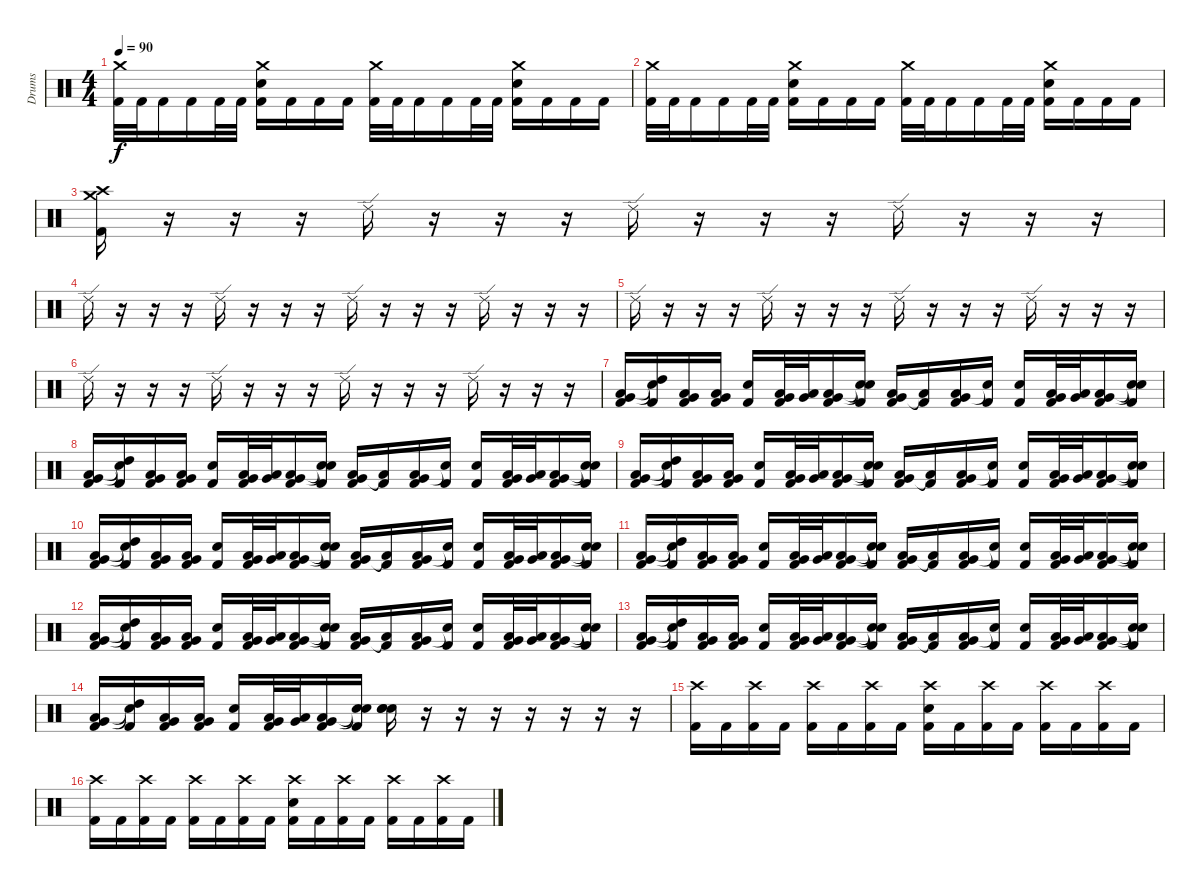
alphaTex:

\track ("Drums" "Drums") {instrument percussion}
\staff {score}
\articulation defaults
\ts (4 4)
\tempo 90
\clef neutral
\ks c
("Crash medium (hit)" "Kick (hit) 2").32{dy f} "Kick (hit) 2".32 "Kick (hit) 2".16 "Kick (hit) 2".16 "Kick (hit) 2".32 "Kick (hit) 2".32 ("Crash medium (hit)" "Electric Snare (hit)" "Kick (hit) 2").16 "Kick (hit) 2".16 "Kick (hit) 2".16 "Kick (hit) 2".16 ("Crash medium (hit)" "Kick (hit) 2").32 "Kick (hit) 2".32 "Kick (hit) 2".16 "Kick (hit) 2".16 "Kick (hit) 2".32 "Kick (hit) 2".32 ("Crash medium (hit)" "Electric Snare (hit)" "Kick (hit) 2").16 "Kick (hit) 2".16 "Kick (hit) 2".16 "Kick (hit) 2".16 |
("Crash medium (hit)" "Kick (hit) 2").32 "Kick (hit) 2".32 "Kick (hit) 2".16 "Kick (hit) 2".16 "Kick (hit) 2".32 "Kick (hit) 2".32 ("Crash medium (hit)" "Electric Snare (hit)" "Kick (hit) 2").16 "Kick (hit) 2".16 "Kick (hit) 2".16 "Kick (hit) 2".16 ("Crash medium (hit)" "Kick (hit) 2").32 "Kick (hit) 2".32 "Kick (hit) 2".16 "Kick (hit) 2".16 "Kick (hit) 2".32 "Kick (hit) 2".32 ("Crash medium (hit)" "Electric Snare (hit)" "Kick (hit) 2").16 "Kick (hit) 2".16 "Kick (hit) 2".16 "Kick (hit) 2".16 |
("Crash medium (hit)" "Crash high (hit)" "Kick (hit) 2").16 r.16 r.16 r.16 "Ride (edge) 2".16 r.16 r.16 r.16 "Ride (edge) 2".16 r.16 r.16 r.16 "Ride (edge) 2".16 r.16 r.16 r.16 |
"Ride (edge) 2".16 r.16 r.16 r.16 "Ride (edge) 2".16 r.16 r.16 r.16 "Ride (edge) 2".16 r.16 r.16 r.16 "Ride (edge) 2".16 r.16 r.16 r.16 |
"Ride (edge) 2".16 r.16 r.16 r.16 "Ride (edge) 2".16 r.16 r.16 r.16 "Ride (edge) 2".16 r.16 r.16 r.16 "Ride (edge) 2".16 r.16 r.16 r.16 |
"Ride (edge) 2".16 r.16 r.16 r.16 "Ride (edge) 2".16 r.16 r.16 r.16 "Ride (edge) 2".16 r.16 r.16 r.16 "Ride (edge) 2".16 r.16 r.16 r.16 |
("Very Low Tom (hit)" "Low Tom (hit)" "Kick (hit) 2").16 ("Snare (hit)"{t} "High Tom (hit)"{t} "Kick (hit) 2").16 ("Very Low Tom (hit)" "Low Tom (hit)" "Kick (hit) 2").16 ("Very Low Tom (hit)" "Low Tom (hit)" "Kick (hit) 2").16 ("Kick (hit) 2" "Electric Snare (hit)").16 ("Very Low Tom (hit)" "Low Tom (hit)" "Kick (hit) 2").32 ("Very Low Tom (hit)" "Low Tom (hit)").32 ("Very Low Tom (hit)" "Low Tom (hit)" "Kick (hit) 2").16 ("Snare (hit)"{t} "Snare (hit)"{t} "Kick (hit) 2").16 ("Very Low Tom (hit)" "Low Tom (hit)" "Kick (hit) 2").16 ("Low Tom (hit)"{t} "Kick (hit) 2").16 ("Very Low Tom (hit)" "Low Tom (hit)" "Kick (hit) 2").16 ("Electric Snare (hit)"{t} "Kick (hit) 2").16 ("Electric Snare (hit)" "Kick (hit) 2").16 ("Low Tom (hit)" "Very Low Tom (hit)" "Kick (hit) 2").32 ("Low Tom (hit)" "Very Low Tom (hit)").32 ("Low Tom (hit)" "Very Low Tom (hit)" "Kick (hit) 2").16 ("Snare (hit)"{t} "Snare (hit)"{t} "Kick (hit) 2").16 |
("Very Low Tom (hit)" "Low Tom (hit)" "Kick (hit) 2").16 ("Snare (hit)"{t} "High Tom (hit)"{t} "Kick (hit) 2").16 ("Very Low Tom (hit)" "Low Tom (hit)" "Kick (hit) 2").16 ("Very Low Tom (hit)" "Low Tom (hit)" "Kick (hit) 2").16 ("Kick (hit) 2" "Electric Snare (hit)").16 ("Very Low Tom (hit)" "Low Tom (hit)" "Kick (hit) 2").32 ("Very Low Tom (hit)" "Low Tom (hit)").32 ("Very Low Tom (hit)" "Low Tom (hit)" "Kick (hit) 2").16 ("Snare (hit)"{t} "Snare (hit)"{t} "Kick (hit) 2").16 ("Very Low Tom (hit)" "Low Tom (hit)" "Kick (hit) 2").16 ("Low Tom (hit)"{t} "Kick (hit) 2").16 ("Very Low Tom (hit)" "Low Tom (hit)" "Kick (hit) 2").16 ("Electric Snare (hit)"{t} "Kick (hit) 2").16 ("Electric Snare (hit)" "Kick (hit) 2").16 ("Low Tom (hit)" "Very Low Tom (hit)" "Kick (hit) 2").32 ("Low Tom (hit)" "Very Low Tom (hit)").32 ("Low Tom (hit)" "Very Low Tom (hit)" "Kick (hit) 2").16 ("Snare (hit)"{t} "Snare (hit)"{t} "Kick (hit) 2").16 |
("Very Low Tom (hit)" "Low Tom (hit)" "Kick (hit) 2").16 ("Snare (hit)"{t} "High Tom (hit)"{t} "Kick (hit) 2").16 ("Very Low Tom (hit)" "Low Tom (hit)" "Kick (hit) 2").16 ("Very Low Tom (hit)" "Low Tom (hit)" "Kick (hit) 2").16 ("Kick (hit) 2" "Electric Snare (hit)").16 ("Very Low Tom (hit)" "Low Tom (hit)" "Kick (hit) 2").32 ("Very Low Tom (hit)" "Low Tom (hit)").32 ("Very Low Tom (hit)" "Low Tom (hit)" "Kick (hit) 2").16 ("Snare (hit)"{t} "Snare (hit)"{t} "Kick (hit) 2").16 ("Very Low Tom (hit)" "Low Tom (hit)" "Kick (hit) 2").16 ("Low Tom (hit)"{t} "Kick (hit) 2").16 ("Very Low Tom (hit)" "Low Tom (hit)" "Kick (hit) 2").16 ("Electric Snare (hit)"{t} "Kick (hit) 2").16 ("Electric Snare (hit)" "Kick (hit) 2").16 ("Low Tom (hit)" "Very Low Tom (hit)" "Kick (hit) 2").32 ("Low Tom (hit)" "Very Low Tom (hit)").32 ("Low Tom (hit)" "Very Low Tom (hit)" "Kick (hit) 2").16 ("Snare (hit)"{t} "Snare (hit)"{t} "Kick (hit) 2").16 |
("Very Low Tom (hit)" "Low Tom (hit)" "Kick (hit) 2").16 ("Snare (hit)"{t} "High Tom (hit)"{t} "Kick (hit) 2").16 ("Very Low Tom (hit)" "Low Tom (hit)" "Kick (hit) 2").16 ("Very Low Tom (hit)" "Low Tom (hit)" "Kick (hit) 2").16 ("Kick (hit) 2" "Electric Snare (hit)").16 ("Very Low Tom (hit)" "Low Tom (hit)" "Kick (hit) 2").32 ("Very Low Tom (hit)" "Low Tom (hit)").32 ("Very Low Tom (hit)" "Low Tom (hit)" "Kick (hit) 2").16 ("Snare (hit)"{t} "Snare (hit)"{t} "Kick (hit) 2").16 ("Very Low Tom (hit)" "Low Tom (hit)" "Kick (hit) 2").16 ("Low Tom (hit)"{t} "Kick (hit) 2").16 ("Very Low Tom (hit)" "Low Tom (hit)" "Kick (hit) 2").16 ("Electric Snare (hit)"{t} "Kick (hit) 2").16 ("Electric Snare (hit)" "Kick (hit) 2").16 ("Low Tom (hit)" "Very Low Tom (hit)" "Kick (hit) 2").32 ("Low Tom (hit)" "Very Low Tom (hit)").32 ("Low Tom (hit)" "Very Low Tom (hit)" "Kick (hit) 2").16 ("Snare (hit)"{t} "Snare (hit)"{t} "Kick (hit) 2").16 |
("Very Low Tom (hit)" "Low Tom (hit)" "Kick (hit) 2").16 ("Snare (hit)"{t} "High Tom (hit)"{t} "Kick (hit) 2").16 ("Very Low Tom (hit)" "Low Tom (hit)" "Kick (hit) 2").16 ("Very Low Tom (hit)" "Low Tom (hit)" "Kick (hit) 2").16 ("Kick (hit) 2" "Electric Snare (hit)").16 ("Very Low Tom (hit)" "Low Tom (hit)" "Kick (hit) 2").32 ("Very Low Tom (hit)" "Low Tom (hit)").32 ("Very Low Tom (hit)" "Low Tom (hit)" "Kick (hit) 2").16 ("Snare (hit)"{t} "Snare (hit)"{t} "Kick (hit) 2").16 ("Very Low Tom (hit)" "Low Tom (hit)" "Kick (hit) 2").16 ("Low Tom (hit)"{t} "Kick (hit) 2").16 ("Very Low Tom (hit)" "Low Tom (hit)" "Kick (hit) 2").16 ("Electric Snare (hit)"{t} "Kick (hit) 2").16 ("Electric Snare (hit)" "Kick (hit) 2").16 ("Low Tom (hit)" "Very Low Tom (hit)" "Kick (hit) 2").32 ("Low Tom (hit)" "Very Low Tom (hit)").32 ("Low Tom (hit)" "Very Low Tom (hit)" "Kick (hit) 2").16 ("Snare (hit)"{t} "Snare (hit)"{t} "Kick (hit) 2").16 |
("Very Low Tom (hit)" "Low Tom (hit)" "Kick (hit) 2").16 ("Snare (hit)"{t} "High Tom (hit)"{t} "Kick (hit) 2").16 ("Very Low Tom (hit)" "Low Tom (hit)" "Kick (hit) 2").16 ("Very Low Tom (hit)" "Low Tom (hit)" "Kick (hit) 2").16 ("Kick (hit) 2" "Electric Snare (hit)").16 ("Very Low Tom (hit)" "Low Tom (hit)" "Kick (hit) 2").32 ("Very Low Tom (hit)" "Low Tom (hit)").32 ("Very Low Tom (hit)" "Low Tom (hit)" "Kick (hit) 2").16 ("Snare (hit)"{t} "Snare (hit)"{t} "Kick (hit) 2").16 ("Very Low Tom (hit)" "Low Tom (hit)" "Kick (hit) 2").16 ("Low Tom (hit)"{t} "Kick (hit) 2").16 ("Very Low Tom (hit)" "Low Tom (hit)" "Kick (hit) 2").16 ("Electric Snare (hit)"{t} "Kick (hit) 2").16 ("Electric Snare (hit)" "Kick (hit) 2").16 ("Low Tom (hit)" "Very Low Tom (hit)" "Kick (hit) 2").32 ("Low Tom (hit)" "Very Low Tom (hit)").32 ("Low Tom (hit)" "Very Low Tom (hit)" "Kick (hit) 2").16 ("Snare (hit)"{t} "Snare (hit)"{t} "Kick (hit) 2").16 |
("Very Low Tom (hit)" "Low Tom (hit)" "Kick (hit) 2").16 ("Snare (hit)"{t} "High Tom (hit)"{t} "Kick (hit) 2").16 ("Very Low Tom (hit)" "Low Tom (hit)" "Kick (hit) 2").16 ("Very Low Tom (hit)" "Low Tom (hit)" "Kick (hit) 2").16 ("Kick (hit) 2" "Electric Snare (hit)").16 ("Very Low Tom (hit)" "Low Tom (hit)" "Kick (hit) 2").32 ("Very Low Tom (hit)" "Low Tom (hit)").32 ("Very Low Tom (hit)" "Low Tom (hit)" "Kick (hit) 2").16 ("Snare (hit)"{t} "Snare (hit)"{t} "Kick (hit) 2").16 ("Very Low Tom (hit)" "Low Tom (hit)" "Kick (hit) 2").16 ("Low Tom (hit)"{t} "Kick (hit) 2").16 ("Very Low Tom (hit)" "Low Tom (hit)" "Kick (hit) 2").16 ("Electric Snare (hit)"{t} "Kick (hit) 2").16 ("Electric Snare (hit)" "Kick (hit) 2").16 ("Low Tom (hit)" "Very Low Tom (hit)" "Kick (hit) 2").32 ("Low Tom (hit)" "Very Low Tom (hit)").32 ("Low Tom (hit)" "Very Low Tom (hit)" "Kick (hit) 2").16 ("Snare (hit)"{t} "Snare (hit)"{t} "Kick (hit) 2").16 |
("Very Low Tom (hit)" "Low Tom (hit)" "Kick (hit) 2").16 ("Snare (hit)"{t} "High Tom (hit)"{t} "Kick (hit) 2").16 ("Very Low Tom (hit)" "Low Tom (hit)" "Kick (hit) 2").16 ("Very Low Tom (hit)" "Low Tom (hit)" "Kick (hit) 2").16 ("Kick (hit) 2" "Electric Snare (hit)").16 ("Very Low Tom (hit)" "Low Tom (hit)" "Kick (hit) 2").32 ("Very Low Tom (hit)" "Low Tom (hit)").32 ("Very Low Tom (hit)" "Low Tom (hit)" "Kick (hit) 2").16 ("Snare (hit)"{t} "Snare (hit)"{t} "Kick (hit) 2").16 ("Electric Snare (hit)" "Electric Snare (hit)" "Electric Snare (hit)").16 r.16 r.16 r.16 r.16 r.16 r.16 r.16 |
("Crash high (hit)" "Kick (hit) 2").16 "Kick (hit) 2".16 ("Crash high (hit)" "Kick (hit) 2").16 "Kick (hit) 2".16 ("Crash high (hit)" "Kick (hit) 2").16 "Kick (hit) 2".16 ("Crash high (hit)" "Kick (hit) 2").16 "Kick (hit) 2".16 ("Crash high (hit)" "Electric Snare (hit)" "Kick (hit) 2").16 "Kick (hit) 2".16 ("Crash high (hit)" "Kick (hit) 2").16 "Kick (hit) 2".16 ("Crash high (hit)" "Kick (hit) 2").16 "Kick (hit) 2".16 ("Crash high (hit)" "Kick (hit) 2").16 "Kick (hit) 2".16 |
("Crash high (hit)" "Kick (hit) 2").16 "Kick (hit) 2".16 ("Crash high (hit)" "Kick (hit) 2").16 "Kick (hit) 2".16 ("Crash high (hit)" "Kick (hit) 2").16 "Kick (hit) 2".16 ("Crash high (hit)" "Kick (hit) 2").16 "Kick (hit) 2".16 ("Crash high (hit)" "Electric Snare (hit)" "Kick (hit) 2").16 "Kick (hit) 2".16 ("Crash high (hit)" "Kick (hit) 2").16 "Kick (hit) 2".16 ("Crash high (hit)" "Kick (hit) 2").16 "Kick (hit) 2".16 ("Crash high (hit)" "Kick (hit) 2").16 "Kick (hit) 2".16
